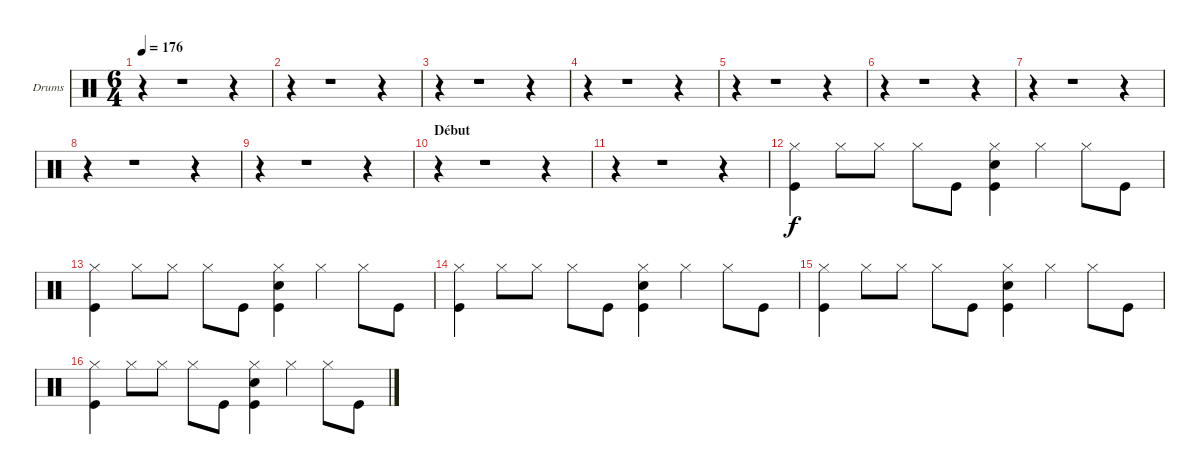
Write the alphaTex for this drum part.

\bracketExtendMode groupsimilarinstruments
\firstSystemTrackNameOrientation horizontal
\otherSystemsTrackNameOrientation horizontal
\track ("Drumkit" "Drums") {instrument percussion}
\staff {score}
\articulation defaults
\ts (6 4)
\tempo 176
\clef neutral
\ks c
r.4{dy f} r.1 r.4 |
r.4 r.1 r.4 |
r.4 r.1 r.4 |
r.4 r.1 r.4 |
r.4 r.1 r.4 |
r.4 r.1 r.4 |
r.4 r.1 r.4 |
r.4 r.1 r.4 |
r.4 r.1 r.4 |
\section ("" "Début")
r.4 r.1 r.4 |
r.4 r.1 r.4 |
("Hi-Hat (closed)" "Kick (hit)").4 "Hi-Hat (closed)".8 "Hi-Hat (closed)".8 "Hi-Hat (closed)".8 "Kick (hit)".8 ("Hi-Hat (closed)" "Snare (hit) 2" "Kick (hit)").4 "Hi-Hat (closed)".4 "Hi-Hat (closed)".8 "Kick (hit)".8 |
("Hi-Hat (closed)" "Kick (hit)").4 "Hi-Hat (closed)".8 "Hi-Hat (closed)".8 "Hi-Hat (closed)".8 "Kick (hit)".8 ("Hi-Hat (closed)" "Snare (hit) 2" "Kick (hit)").4 "Hi-Hat (closed)".4 "Hi-Hat (closed)".8 "Kick (hit)".8 |
("Hi-Hat (closed)" "Kick (hit)").4 "Hi-Hat (closed)".8 "Hi-Hat (closed)".8 "Hi-Hat (closed)".8 "Kick (hit)".8 ("Hi-Hat (closed)" "Snare (hit) 2" "Kick (hit)").4 "Hi-Hat (closed)".4 "Hi-Hat (closed)".8 "Kick (hit)".8 |
("Hi-Hat (closed)" "Kick (hit)").4 "Hi-Hat (closed)".8 "Hi-Hat (closed)".8 "Hi-Hat (closed)".8 "Kick (hit)".8 ("Hi-Hat (closed)" "Snare (hit) 2" "Kick (hit)").4 "Hi-Hat (closed)".4 "Hi-Hat (closed)".8 "Kick (hit)".8 |
("Hi-Hat (closed)" "Kick (hit)").4 "Hi-Hat (closed)".8 "Hi-Hat (closed)".8 "Hi-Hat (closed)".8 "Kick (hit)".8 ("Hi-Hat (closed)" "Snare (hit) 2" "Kick (hit)").4 "Hi-Hat (closed)".4 "Hi-Hat (closed)".8 "Kick (hit)".8
